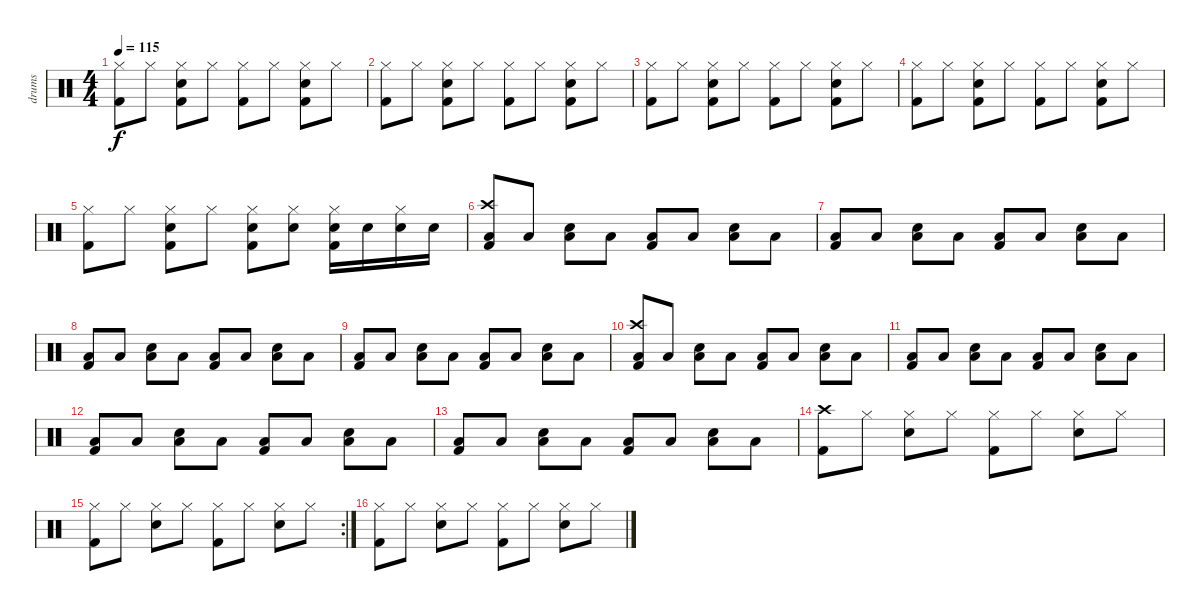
\track ("drums" "drums") {instrument percussion}
\staff {score}
\articulation defaults
\ts (4 4)
\tempo 115
\clef neutral
\ks c
("Hi-Hat (closed)" "Kick (hit) 2").8{dy f} "Hi-Hat (closed)".8 ("Hi-Hat (closed)" "Electric Snare (hit)" "Kick (hit) 2").8 "Hi-Hat (closed)".8 ("Hi-Hat (closed)" "Kick (hit) 2").8 "Hi-Hat (closed)".8 ("Hi-Hat (closed)" "Electric Snare (hit)" "Kick (hit) 2").8 "Hi-Hat (closed)".8 |
("Hi-Hat (closed)" "Kick (hit) 2").8 "Hi-Hat (closed)".8 ("Hi-Hat (closed)" "Electric Snare (hit)" "Kick (hit) 2").8 "Hi-Hat (closed)".8 ("Hi-Hat (closed)" "Kick (hit) 2").8 "Hi-Hat (closed)".8 ("Hi-Hat (closed)" "Electric Snare (hit)" "Kick (hit) 2").8 "Hi-Hat (closed)".8 |
("Hi-Hat (closed)" "Kick (hit) 2").8 "Hi-Hat (closed)".8 ("Hi-Hat (closed)" "Electric Snare (hit)" "Kick (hit) 2").8 "Hi-Hat (closed)".8 ("Hi-Hat (closed)" "Kick (hit) 2").8 "Hi-Hat (closed)".8 ("Hi-Hat (closed)" "Electric Snare (hit)" "Kick (hit) 2").8 "Hi-Hat (closed)".8 |
("Hi-Hat (closed)" "Kick (hit) 2").8 "Hi-Hat (closed)".8 ("Hi-Hat (closed)" "Electric Snare (hit)" "Kick (hit) 2").8 "Hi-Hat (closed)".8 ("Hi-Hat (closed)" "Kick (hit) 2").8 "Hi-Hat (closed)".8 ("Hi-Hat (closed)" "Electric Snare (hit)" "Kick (hit) 2").8 "Hi-Hat (closed)".8 |
("Hi-Hat (closed)" "Kick (hit) 2").8 "Hi-Hat (closed)".8 ("Hi-Hat (closed)" "Electric Snare (hit)" "Kick (hit) 2").8 "Hi-Hat (closed)".8 ("Hi-Hat (closed)" "Electric Snare (hit)" "Kick (hit) 2").8 ("Hi-Hat (closed)" "Electric Snare (hit)").8 ("Hi-Hat (closed)" "Electric Snare (hit)" "Kick (hit) 2").16 "Electric Snare (hit)".16 ("Hi-Hat (closed)" "Electric Snare (hit)").16 "Electric Snare (hit)".16 |
("Crash high (hit)" "Low Floor Tom (hit)" "Kick (hit) 2").8 "Low Floor Tom (hit)".8 ("Low Floor Tom (hit)" "Electric Snare (hit)").8 "Low Floor Tom (hit)".8 ("Low Floor Tom (hit)" "Kick (hit) 2").8 "Low Floor Tom (hit)".8 ("Low Floor Tom (hit)" "Electric Snare (hit)").8 "Low Floor Tom (hit)".8 |
("Low Floor Tom (hit)" "Kick (hit) 2").8 "Low Floor Tom (hit)".8 ("Low Floor Tom (hit)" "Electric Snare (hit)").8 "Low Floor Tom (hit)".8 ("Low Floor Tom (hit)" "Kick (hit) 2").8 "Low Floor Tom (hit)".8 ("Low Floor Tom (hit)" "Electric Snare (hit)").8 "Low Floor Tom (hit)".8 |
("Low Floor Tom (hit)" "Kick (hit) 2").8 "Low Floor Tom (hit)".8 ("Low Floor Tom (hit)" "Electric Snare (hit)").8 "Low Floor Tom (hit)".8 ("Low Floor Tom (hit)" "Kick (hit) 2").8 "Low Floor Tom (hit)".8 ("Low Floor Tom (hit)" "Electric Snare (hit)").8 "Low Floor Tom (hit)".8 |
("Low Floor Tom (hit)" "Kick (hit) 2").8 "Low Floor Tom (hit)".8 ("Low Floor Tom (hit)" "Electric Snare (hit)").8 "Low Floor Tom (hit)".8 ("Low Floor Tom (hit)" "Kick (hit) 2").8 "Low Floor Tom (hit)".8 ("Low Floor Tom (hit)" "Electric Snare (hit)").8 "Low Floor Tom (hit)".8 |
("Crash high (hit)" "Low Floor Tom (hit)" "Kick (hit) 2").8 "Low Floor Tom (hit)".8 ("Low Floor Tom (hit)" "Electric Snare (hit)").8 "Low Floor Tom (hit)".8 ("Low Floor Tom (hit)" "Kick (hit) 2").8 "Low Floor Tom (hit)".8 ("Low Floor Tom (hit)" "Electric Snare (hit)").8 "Low Floor Tom (hit)".8 |
("Low Floor Tom (hit)" "Kick (hit) 2").8 "Low Floor Tom (hit)".8 ("Low Floor Tom (hit)" "Electric Snare (hit)").8 "Low Floor Tom (hit)".8 ("Low Floor Tom (hit)" "Kick (hit) 2").8 "Low Floor Tom (hit)".8 ("Low Floor Tom (hit)" "Electric Snare (hit)").8 "Low Floor Tom (hit)".8 |
("Low Floor Tom (hit)" "Kick (hit) 2").8 "Low Floor Tom (hit)".8 ("Low Floor Tom (hit)" "Electric Snare (hit)").8 "Low Floor Tom (hit)".8 ("Low Floor Tom (hit)" "Kick (hit) 2").8 "Low Floor Tom (hit)".8 ("Low Floor Tom (hit)" "Electric Snare (hit)").8 "Low Floor Tom (hit)".8 |
("Low Floor Tom (hit)" "Kick (hit) 2").8 "Low Floor Tom (hit)".8 ("Low Floor Tom (hit)" "Electric Snare (hit)").8 "Low Floor Tom (hit)".8 ("Low Floor Tom (hit)" "Kick (hit) 2").8 "Low Floor Tom (hit)".8 ("Low Floor Tom (hit)" "Electric Snare (hit)").8 "Low Floor Tom (hit)".8 |
("Crash high (hit)" "Kick (hit) 2").8 "Hi-Hat (closed)".8 ("Hi-Hat (closed)" "Electric Snare (hit)").8 "Hi-Hat (closed)".8 ("Hi-Hat (closed)" "Kick (hit) 2").8 "Hi-Hat (closed)".8 ("Hi-Hat (closed)" "Electric Snare (hit)").8 "Hi-Hat (closed)".8 |
\rc 2
("Hi-Hat (closed)" "Kick (hit) 2").8 "Hi-Hat (closed)".8 ("Hi-Hat (closed)" "Electric Snare (hit)").8 "Hi-Hat (closed)".8 ("Hi-Hat (closed)" "Kick (hit) 2").8 "Hi-Hat (closed)".8 ("Hi-Hat (closed)" "Electric Snare (hit)").8 "Hi-Hat (closed)".8 |
("Hi-Hat (closed)" "Kick (hit) 2").8 "Hi-Hat (closed)".8 ("Hi-Hat (closed)" "Electric Snare (hit)").8 "Hi-Hat (closed)".8 ("Hi-Hat (closed)" "Kick (hit) 2").8 "Hi-Hat (closed)".8 ("Hi-Hat (closed)" "Electric Snare (hit)").8 "Hi-Hat (closed)".8
